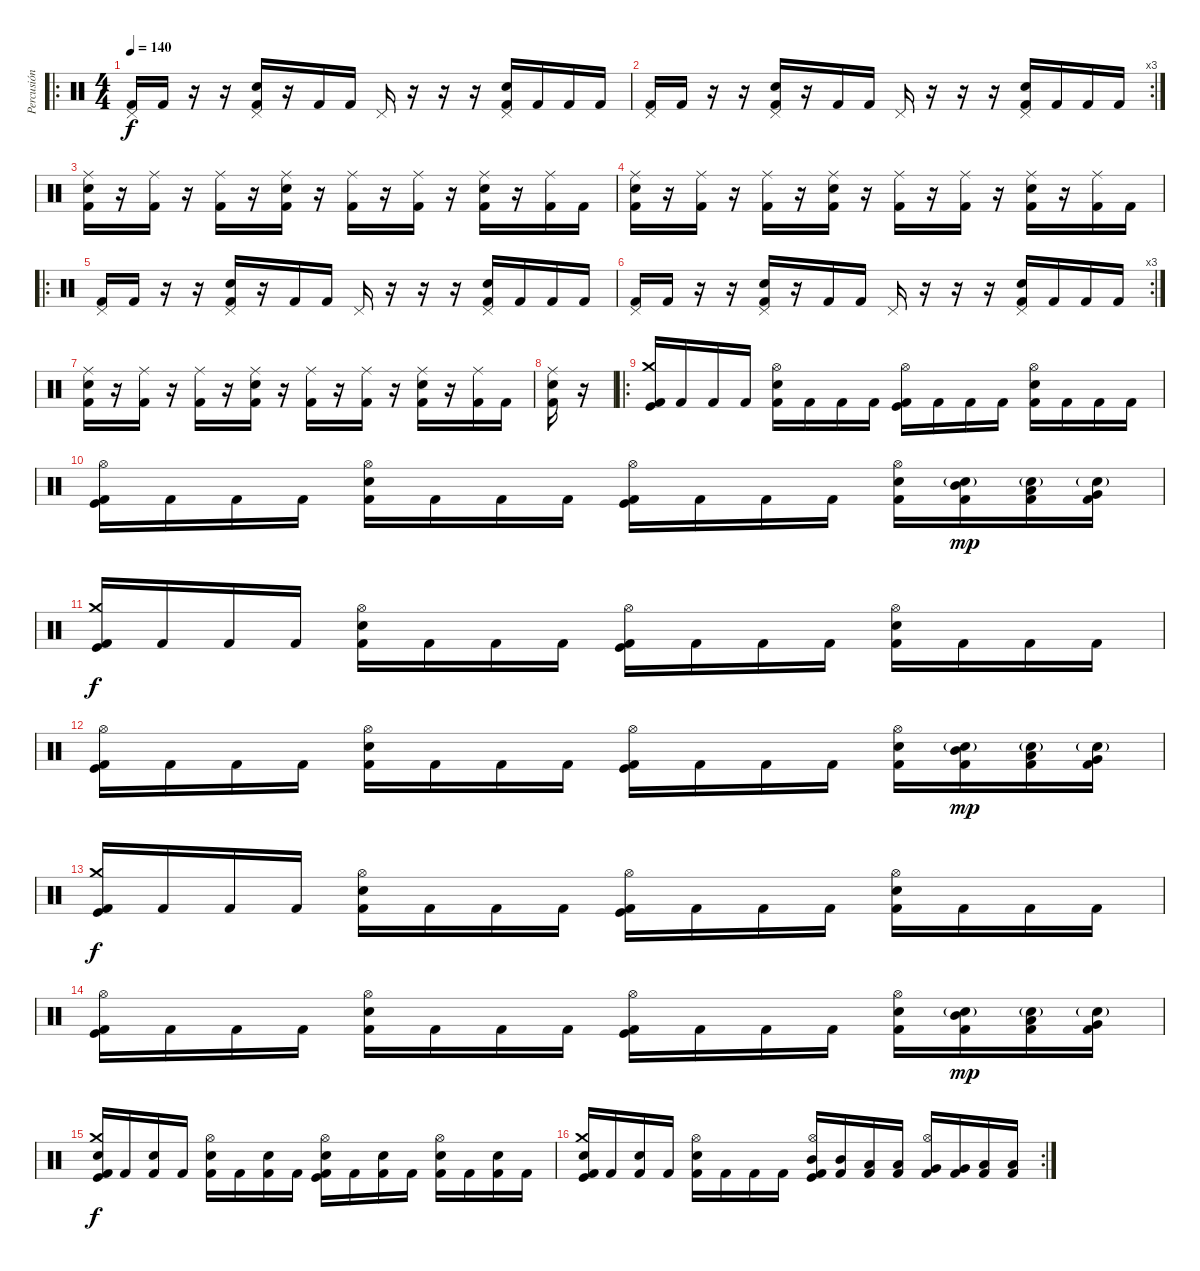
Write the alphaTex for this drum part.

\track ("Percusión" "Percusión") {instrument percussion}
\staff {score}
\articulation defaults
\ro
\ts (4 4)
\tempo 140
\clef neutral
\ks c
("Pedal Hi-Hat (hit)" "Kick (hit) 2").16{dy f} "Kick (hit) 2".16 r.16 r.16 ("Electric Snare (hit)" "Pedal Hi-Hat (hit)" "Kick (hit) 2").16 r.16 "Kick (hit) 2".16 "Kick (hit) 2".16 "Pedal Hi-Hat (hit)".16 r.16 r.16 r.16 ("Electric Snare (hit)" "Pedal Hi-Hat (hit)" "Kick (hit) 2").16 "Kick (hit) 2".16 "Kick (hit) 2".16 "Kick (hit) 2".16 |
\rc 3
("Pedal Hi-Hat (hit)" "Kick (hit) 2").16 "Kick (hit) 2".16 r.16 r.16 ("Electric Snare (hit)" "Pedal Hi-Hat (hit)" "Kick (hit) 2").16 r.16 "Kick (hit) 2".16 "Kick (hit) 2".16 "Pedal Hi-Hat (hit)".16 r.16 r.16 r.16 ("Electric Snare (hit)" "Pedal Hi-Hat (hit)" "Kick (hit) 2").16 "Kick (hit) 2".16 "Kick (hit) 2".16 "Kick (hit) 2".16 |
("Ride (middle)" "Electric Snare (hit)" "Kick (hit) 2").16 r.16 ("Ride (middle)" "Kick (hit) 2").16 r.16 ("Ride (middle)" "Kick (hit) 2").16 r.16 ("Ride (middle)" "Electric Snare (hit)" "Kick (hit) 2").16 r.16 ("Ride (middle)" "Kick (hit) 2").16 r.16 ("Ride (middle)" "Kick (hit) 2").16 r.16 ("Ride (middle)" "Electric Snare (hit)" "Kick (hit) 2").16 r.16 ("Ride (middle)" "Kick (hit) 2").16 "Kick (hit) 2".16 |
("Ride (middle)" "Electric Snare (hit)" "Kick (hit) 2").16 r.16 ("Ride (middle)" "Kick (hit) 2").16 r.16 ("Ride (middle)" "Kick (hit) 2").16 r.16 ("Ride (middle)" "Electric Snare (hit)" "Kick (hit) 2").16 r.16 ("Ride (middle)" "Kick (hit) 2").16 r.16 ("Ride (middle)" "Kick (hit) 2").16 r.16 ("Ride (middle)" "Electric Snare (hit)" "Kick (hit) 2").16 r.16 ("Ride (middle)" "Kick (hit) 2").16 "Kick (hit) 2".16 |
\ro
("Pedal Hi-Hat (hit)" "Kick (hit) 2").16 "Kick (hit) 2".16 r.16 r.16 ("Electric Snare (hit)" "Pedal Hi-Hat (hit)" "Kick (hit) 2").16 r.16 "Kick (hit) 2".16 "Kick (hit) 2".16 "Pedal Hi-Hat (hit)".16 r.16 r.16 r.16 ("Electric Snare (hit)" "Pedal Hi-Hat (hit)" "Kick (hit) 2").16 "Kick (hit) 2".16 "Kick (hit) 2".16 "Kick (hit) 2".16 |
\rc 3
("Pedal Hi-Hat (hit)" "Kick (hit) 2").16 "Kick (hit) 2".16 r.16 r.16 ("Electric Snare (hit)" "Pedal Hi-Hat (hit)" "Kick (hit) 2").16 r.16 "Kick (hit) 2".16 "Kick (hit) 2".16 "Pedal Hi-Hat (hit)".16 r.16 r.16 r.16 ("Electric Snare (hit)" "Pedal Hi-Hat (hit)" "Kick (hit) 2").16 "Kick (hit) 2".16 "Kick (hit) 2".16 "Kick (hit) 2".16 |
("Ride (middle)" "Electric Snare (hit)" "Kick (hit) 2").16 r.16 ("Ride (middle)" "Kick (hit) 2").16 r.16 ("Ride (middle)" "Kick (hit) 2").16 r.16 ("Ride (middle)" "Electric Snare (hit)" "Kick (hit) 2").16 r.16 ("Ride (middle)" "Kick (hit) 2").16 r.16 ("Ride (middle)" "Kick (hit) 2").16 r.16 ("Ride (middle)" "Electric Snare (hit)" "Kick (hit) 2").16 r.16 ("Ride (middle)" "Kick (hit) 2").16 "Kick (hit) 2".16 |
("Ride (middle)" "Electric Snare (hit)" "Kick (hit) 2").16 r.16 |
\ro
("Crash medium (hit)" "Kick (hit)" "Kick (hit) 2").16 "Kick (hit) 2".16 "Kick (hit) 2".16 "Kick (hit) 2".16 ("Hi-Hat (open)" "Electric Snare (hit)" "Kick (hit) 2").16 "Kick (hit) 2".16 "Kick (hit) 2".16 "Kick (hit) 2".16 ("Hi-Hat (open)" "Kick (hit)" "Kick (hit) 2").16 "Kick (hit) 2".16 "Kick (hit) 2".16 "Kick (hit) 2".16 ("Hi-Hat (open)" "Electric Snare (hit)" "Kick (hit) 2").16 "Kick (hit) 2".16 "Kick (hit) 2".16 "Kick (hit) 2".16 |
("Hi-Hat (open)" "Kick (hit)" "Kick (hit) 2").16 "Kick (hit) 2".16 "Kick (hit) 2".16 "Kick (hit) 2".16 ("Hi-Hat (open)" "Electric Snare (hit)" "Kick (hit) 2").16 "Kick (hit) 2".16 "Kick (hit) 2".16 "Kick (hit) 2".16 ("Hi-Hat (open)" "Kick (hit)" "Kick (hit) 2").16 "Kick (hit) 2".16 "Kick (hit) 2".16 "Kick (hit) 2".16 ("Hi-Hat (open)" "Electric Snare (hit)" "Kick (hit) 2").16 ("Electric Snare (hit)"{g} "Mid Tom (hit)" "Kick (hit) 2").16{dy mp} ("Electric Snare (hit)"{g} "Low Tom (hit)" "Kick (hit) 2").16 ("Electric Snare (hit)"{g} "Very Low Tom (hit)" "Kick (hit) 2").16 |
("Crash medium (hit)" "Kick (hit)" "Kick (hit) 2").16{dy f} "Kick (hit) 2".16 "Kick (hit) 2".16 "Kick (hit) 2".16 ("Hi-Hat (open)" "Electric Snare (hit)" "Kick (hit) 2").16 "Kick (hit) 2".16 "Kick (hit) 2".16 "Kick (hit) 2".16 ("Hi-Hat (open)" "Kick (hit)" "Kick (hit) 2").16 "Kick (hit) 2".16 "Kick (hit) 2".16 "Kick (hit) 2".16 ("Hi-Hat (open)" "Electric Snare (hit)" "Kick (hit) 2").16 "Kick (hit) 2".16 "Kick (hit) 2".16 "Kick (hit) 2".16 |
("Hi-Hat (open)" "Kick (hit)" "Kick (hit) 2").16 "Kick (hit) 2".16 "Kick (hit) 2".16 "Kick (hit) 2".16 ("Hi-Hat (open)" "Electric Snare (hit)" "Kick (hit) 2").16 "Kick (hit) 2".16 "Kick (hit) 2".16 "Kick (hit) 2".16 ("Hi-Hat (open)" "Kick (hit)" "Kick (hit) 2").16 "Kick (hit) 2".16 "Kick (hit) 2".16 "Kick (hit) 2".16 ("Hi-Hat (open)" "Electric Snare (hit)" "Kick (hit) 2").16 ("Electric Snare (hit)"{g} "Mid Tom (hit)" "Kick (hit) 2").16{dy mp} ("Electric Snare (hit)"{g} "Low Tom (hit)" "Kick (hit) 2").16 ("Electric Snare (hit)"{g} "Very Low Tom (hit)" "Kick (hit) 2").16 |
("Crash medium (hit)" "Kick (hit)" "Kick (hit) 2").16{dy f} "Kick (hit) 2".16 "Kick (hit) 2".16 "Kick (hit) 2".16 ("Hi-Hat (open)" "Electric Snare (hit)" "Kick (hit) 2").16 "Kick (hit) 2".16 "Kick (hit) 2".16 "Kick (hit) 2".16 ("Hi-Hat (open)" "Kick (hit)" "Kick (hit) 2").16 "Kick (hit) 2".16 "Kick (hit) 2".16 "Kick (hit) 2".16 ("Hi-Hat (open)" "Electric Snare (hit)" "Kick (hit) 2").16 "Kick (hit) 2".16 "Kick (hit) 2".16 "Kick (hit) 2".16 |
("Hi-Hat (open)" "Kick (hit)" "Kick (hit) 2").16 "Kick (hit) 2".16 "Kick (hit) 2".16 "Kick (hit) 2".16 ("Hi-Hat (open)" "Electric Snare (hit)" "Kick (hit) 2").16 "Kick (hit) 2".16 "Kick (hit) 2".16 "Kick (hit) 2".16 ("Hi-Hat (open)" "Kick (hit)" "Kick (hit) 2").16 "Kick (hit) 2".16 "Kick (hit) 2".16 "Kick (hit) 2".16 ("Hi-Hat (open)" "Electric Snare (hit)" "Kick (hit) 2").16 ("Electric Snare (hit)"{g} "Mid Tom (hit)" "Kick (hit) 2").16{dy mp} ("Electric Snare (hit)"{g} "Low Tom (hit)" "Kick (hit) 2").16 ("Electric Snare (hit)"{g} "Very Low Tom (hit)" "Kick (hit) 2").16 |
("Crash medium (hit)" "Electric Snare (hit)" "Kick (hit)" "Kick (hit) 2").16{dy f} "Kick (hit) 2".16 ("Electric Snare (hit)" "Kick (hit) 2").16 "Kick (hit) 2".16 ("Hi-Hat (open)" "Electric Snare (hit)" "Kick (hit) 2").16 "Kick (hit) 2".16 ("Electric Snare (hit)" "Kick (hit) 2").16 "Kick (hit) 2".16 ("Hi-Hat (open)" "Electric Snare (hit)" "Kick (hit)" "Kick (hit) 2").16 "Kick (hit) 2".16 ("Electric Snare (hit)" "Kick (hit) 2").16 "Kick (hit) 2".16 ("Hi-Hat (open)" "Electric Snare (hit)" "Kick (hit) 2").16 "Kick (hit) 2".16 ("Electric Snare (hit)" "Kick (hit) 2").16 "Kick (hit) 2".16 |
\rc 2
("Crash medium (hit)" "Electric Snare (hit)" "Kick (hit)" "Kick (hit) 2").16 "Kick (hit) 2".16 ("Electric Snare (hit)" "Kick (hit) 2").16 "Kick (hit) 2".16 ("Hi-Hat (open)" "Electric Snare (hit)" "Kick (hit) 2").16 "Kick (hit) 2".16 "Kick (hit) 2".16 "Kick (hit) 2".16 ("Hi-Hat (open)" "Mid Tom (hit)" "Kick (hit)" "Kick (hit) 2").16 ("Mid Tom (hit)" "Kick (hit) 2").16 ("Low Tom (hit)" "Kick (hit) 2").16 ("Low Tom (hit)" "Kick (hit) 2").16 ("Hi-Hat (open)" "Very Low Tom (hit)" "Kick (hit) 2").16 ("Very Low Tom (hit)" "Kick (hit) 2").16 ("Low Floor Tom (hit)" "Kick (hit) 2").16 ("Low Floor Tom (hit)" "Kick (hit) 2").16
